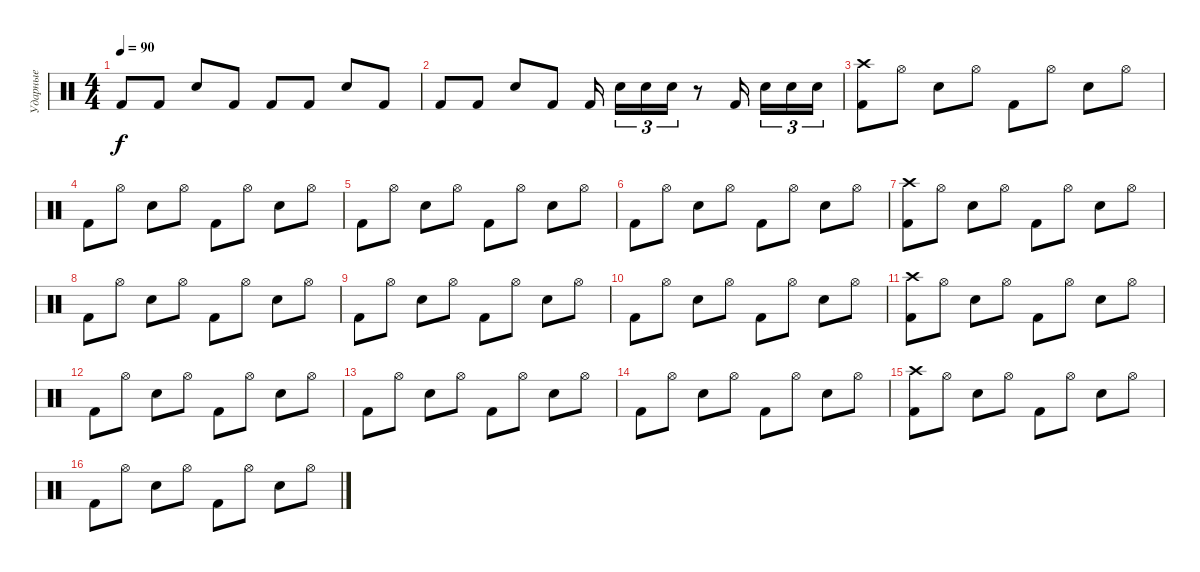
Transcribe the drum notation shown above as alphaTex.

\track ("Ударные" "Ударные") {instrument percussion}
\staff {score}
\articulation defaults
\ts (4 4)
\tempo 90
\clef neutral
\ks c "Kick (hit) 2".8{dy f} "Kick (hit) 2".8 "Electric Snare (hit)".8 "Kick (hit) 2".8 "Kick (hit) 2".8 "Kick (hit) 2".8 "Electric Snare (hit)".8 "Kick (hit) 2".8
|
"Kick (hit) 2".8 "Kick (hit) 2".8 "Electric Snare (hit)".8 "Kick (hit) 2".8 "Kick (hit) 2".16{beam splitsecondary} "Electric Snare (hit)".16{tu (3 2)} "Electric Snare (hit)".16{tu (3 2)} "Electric Snare (hit)".16{tu (3 2)} r.8 "Kick (hit) 2".16{beam splitsecondary} "Electric Snare (hit)".16{tu (3 2)} "Electric Snare (hit)".16{tu (3 2)} "Electric Snare (hit)".16{tu (3 2)} |
("Crash high (hit)" "Kick (hit) 2").8 "Hi-Hat (open)".8 "Electric Snare (hit)".8 "Hi-Hat (open)".8 "Kick (hit) 2".8 "Hi-Hat (open)".8 "Electric Snare (hit)".8 "Hi-Hat (open)".8 |
"Kick (hit) 2".8 "Hi-Hat (open)".8 "Electric Snare (hit)".8 "Hi-Hat (open)".8 "Kick (hit) 2".8 "Hi-Hat (open)".8 "Electric Snare (hit)".8 "Hi-Hat (open)".8 |
"Kick (hit) 2".8 "Hi-Hat (open)".8 "Electric Snare (hit)".8 "Hi-Hat (open)".8 "Kick (hit) 2".8 "Hi-Hat (open)".8 "Electric Snare (hit)".8 "Hi-Hat (open)".8 |
"Kick (hit) 2".8 "Hi-Hat (open)".8 "Electric Snare (hit)".8 "Hi-Hat (open)".8 "Kick (hit) 2".8 "Hi-Hat (open)".8 "Electric Snare (hit)".8 "Hi-Hat (open)".8 |
("Crash high (hit)" "Kick (hit) 2").8 "Hi-Hat (open)".8 "Electric Snare (hit)".8 "Hi-Hat (open)".8 "Kick (hit) 2".8 "Hi-Hat (open)".8 "Electric Snare (hit)".8 "Hi-Hat (open)".8 |
"Kick (hit) 2".8 "Hi-Hat (open)".8 "Electric Snare (hit)".8 "Hi-Hat (open)".8 "Kick (hit) 2".8 "Hi-Hat (open)".8 "Electric Snare (hit)".8 "Hi-Hat (open)".8 |
"Kick (hit) 2".8 "Hi-Hat (open)".8 "Electric Snare (hit)".8 "Hi-Hat (open)".8 "Kick (hit) 2".8 "Hi-Hat (open)".8 "Electric Snare (hit)".8 "Hi-Hat (open)".8 |
"Kick (hit) 2".8 "Hi-Hat (open)".8 "Electric Snare (hit)".8 "Hi-Hat (open)".8 "Kick (hit) 2".8 "Hi-Hat (open)".8 "Electric Snare (hit)".8 "Hi-Hat (open)".8 |
("Crash high (hit)" "Kick (hit) 2").8 "Hi-Hat (open)".8 "Electric Snare (hit)".8 "Hi-Hat (open)".8 "Kick (hit) 2".8 "Hi-Hat (open)".8 "Electric Snare (hit)".8 "Hi-Hat (open)".8 |
"Kick (hit) 2".8 "Hi-Hat (open)".8 "Electric Snare (hit)".8 "Hi-Hat (open)".8 "Kick (hit) 2".8 "Hi-Hat (open)".8 "Electric Snare (hit)".8 "Hi-Hat (open)".8 |
"Kick (hit) 2".8 "Hi-Hat (open)".8 "Electric Snare (hit)".8 "Hi-Hat (open)".8 "Kick (hit) 2".8 "Hi-Hat (open)".8 "Electric Snare (hit)".8 "Hi-Hat (open)".8 |
"Kick (hit) 2".8 "Hi-Hat (open)".8 "Electric Snare (hit)".8 "Hi-Hat (open)".8 "Kick (hit) 2".8 "Hi-Hat (open)".8 "Electric Snare (hit)".8 "Hi-Hat (open)".8 |
("Crash high (hit)" "Kick (hit) 2").8 "Hi-Hat (open)".8 "Electric Snare (hit)".8 "Hi-Hat (open)".8 "Kick (hit) 2".8 "Hi-Hat (open)".8 "Electric Snare (hit)".8 "Hi-Hat (open)".8 |
"Kick (hit) 2".8 "Hi-Hat (open)".8 "Electric Snare (hit)".8 "Hi-Hat (open)".8 "Kick (hit) 2".8 "Hi-Hat (open)".8 "Electric Snare (hit)".8 "Hi-Hat (open)".8
